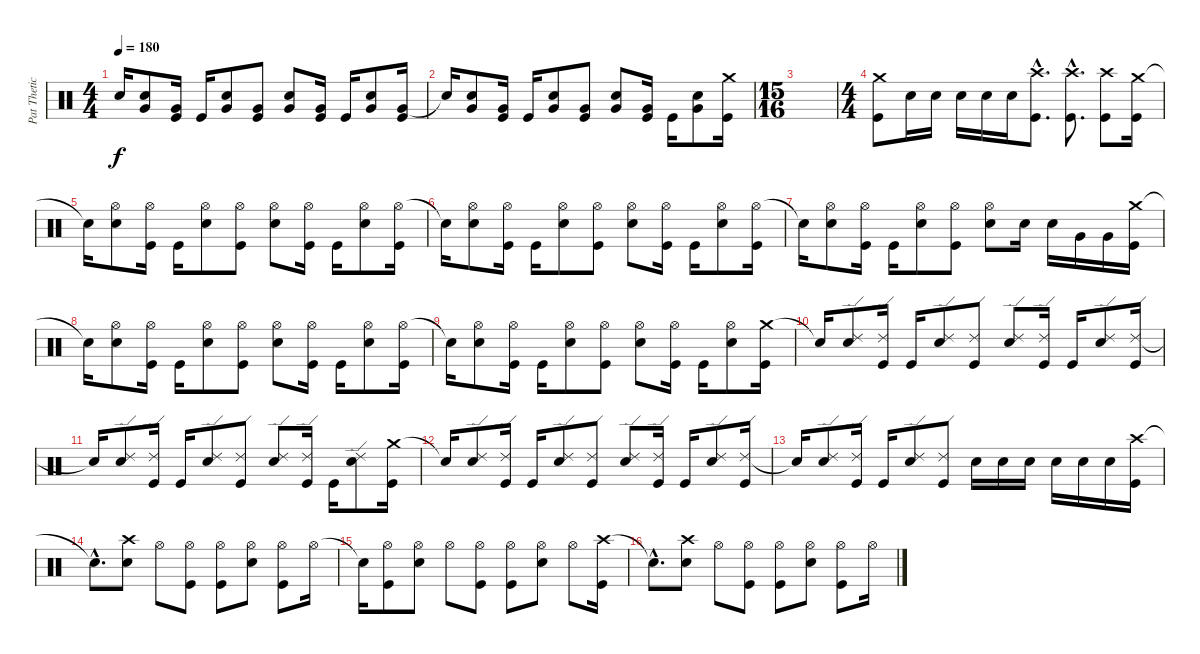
\track ("Pat Thetic" "Pat Thetic") {instrument percussion}
\staff {score}
\articulation defaults
\ts (4 4)
\tempo 180
\clef neutral
\ks c "Snare (hit)"{t}.16{dy f}
("Very Low Tom (hit)" "Electric Snare (hit)").8 ("Very Low Tom (hit)" "Kick (hit)").16 "Kick (hit)".16 ("Very Low Tom (hit)" "Electric Snare (hit)").8 ("Very Low Tom (hit)" "Kick (hit)").8 ("Very Low Tom (hit)" "Electric Snare (hit)").8 ("Very Low Tom (hit)" "Kick (hit)").16 "Kick (hit)".16 ("Very Low Tom (hit)" "Electric Snare (hit)").8 ("Very Low Tom (hit)" "Kick (hit)").16 |
"Snare (hit)"{t}.16 ("Very Low Tom (hit)" "Electric Snare (hit)").8 ("Very Low Tom (hit)" "Kick (hit)").16 "Kick (hit)".16 ("Very Low Tom (hit)" "Electric Snare (hit)").8 ("Very Low Tom (hit)" "Kick (hit)").8 ("Very Low Tom (hit)" "Electric Snare (hit)").8 ("Very Low Tom (hit)" "Kick (hit)").16 "Kick (hit)".16 ("Very Low Tom (hit)" "Electric Snare (hit)").8 ("Crash medium (hit)" "Kick (hit)").16 |
\ts (15 16)
|
\ts (4 4)
("Crash medium (hit)" "Kick (hit)").8 "Electric Snare (hit)".16 "Electric Snare (hit)".16 "Electric Snare (hit)".16 "Electric Snare (hit)".16 "Electric Snare (hit)".16 ("Crash high (hit)"{hac} "Kick (hit)"{hac}).8{d} ("Crash high (hit)"{hac} "Kick (hit)"{hac}).8{d} ("Crash high (hit)" "Kick (hit)").8 ("Crash medium (hit)" "Kick (hit)").16 |
"Snare (hit)"{t}.16 ("Hi-Hat (open)" "Electric Snare (hit)").8 ("Hi-Hat (open)" "Kick (hit)").16 "Kick (hit)".16 ("Hi-Hat (open)" "Electric Snare (hit)").8 ("Hi-Hat (open)" "Kick (hit)").8 ("Hi-Hat (open)" "Electric Snare (hit)").8 ("Hi-Hat (open)" "Kick (hit)").16 "Kick (hit)".16 ("Hi-Hat (open)" "Electric Snare (hit)").8 ("Hi-Hat (open)" "Kick (hit)").16 |
"Snare (hit)"{t}.16 ("Hi-Hat (open)" "Electric Snare (hit)").8 ("Hi-Hat (open)" "Kick (hit)").16 "Kick (hit)".16 ("Hi-Hat (open)" "Electric Snare (hit)").8 ("Hi-Hat (open)" "Kick (hit)").8 ("Hi-Hat (open)" "Electric Snare (hit)").8 ("Hi-Hat (open)" "Kick (hit)").16 "Kick (hit)".16 ("Hi-Hat (open)" "Electric Snare (hit)").8 ("Hi-Hat (open)" "Kick (hit)").16 |
"Snare (hit)"{t}.16 ("Hi-Hat (open)" "Electric Snare (hit)").8 ("Hi-Hat (open)" "Kick (hit)").16 "Kick (hit)".16 ("Hi-Hat (open)" "Electric Snare (hit)").8 ("Hi-Hat (open)" "Kick (hit)").8 ("Hi-Hat (open)" "Electric Snare (hit)").8 "Electric Snare (hit)".16 "Electric Snare (hit)".16 "Very Low Tom (hit)".16 "Very Low Tom (hit)".16 ("Crash medium (hit)" "Kick (hit)").16 |
"Snare (hit)"{t}.16 ("Hi-Hat (open)" "Electric Snare (hit)").8 ("Hi-Hat (open)" "Kick (hit)").16 "Kick (hit)".16 ("Hi-Hat (open)" "Electric Snare (hit)").8 ("Hi-Hat (open)" "Kick (hit)").8 ("Hi-Hat (open)" "Electric Snare (hit)").8 ("Hi-Hat (open)" "Kick (hit)").16 "Kick (hit)".16 ("Hi-Hat (open)" "Electric Snare (hit)").8 ("Hi-Hat (open)" "Kick (hit)").16 |
"Snare (hit)"{t}.16 ("Hi-Hat (open)" "Electric Snare (hit)").8 ("Hi-Hat (open)" "Kick (hit)").16 "Kick (hit)".16 ("Hi-Hat (open)" "Electric Snare (hit)").8 ("Hi-Hat (open)" "Kick (hit)").8 ("Hi-Hat (open)" "Electric Snare (hit)").8 ("Hi-Hat (open)" "Kick (hit)").16 "Kick (hit)".16 ("Hi-Hat (open)" "Electric Snare (hit)").8 ("Crash medium (hit)" "Kick (hit)").16 |
"Snare (hit)"{t}.16 ("Ride (edge) 2" "Electric Snare (hit)").8 ("Ride (edge) 2" "Kick (hit)").16 "Kick (hit)".16 ("Ride (edge) 2" "Electric Snare (hit)").8 ("Ride (edge) 2" "Kick (hit)").8 ("Ride (edge) 2" "Electric Snare (hit)").8 ("Ride (edge) 2" "Kick (hit)").16 "Kick (hit)".16 ("Ride (edge) 2" "Electric Snare (hit)").8 ("Ride (edge) 2" "Kick (hit)").16 |
"Snare (hit)"{t}.16 ("Ride (edge) 2" "Electric Snare (hit)").8 ("Ride (edge) 2" "Kick (hit)").16 "Kick (hit)".16 ("Ride (edge) 2" "Electric Snare (hit)").8 ("Ride (edge) 2" "Kick (hit)").8 ("Ride (edge) 2" "Electric Snare (hit)").8 ("Ride (edge) 2" "Kick (hit)").16 "Kick (hit)".16 ("Ride (edge) 2" "Electric Snare (hit)").8 ("Crash medium (hit)" "Kick (hit)").16 |
"Snare (hit)"{t}.16 ("Ride (edge) 2" "Electric Snare (hit)").8 ("Ride (edge) 2" "Kick (hit)").16 "Kick (hit)".16 ("Ride (edge) 2" "Electric Snare (hit)").8 ("Ride (edge) 2" "Kick (hit)").8 ("Ride (edge) 2" "Electric Snare (hit)").8 ("Ride (edge) 2" "Kick (hit)").16 "Kick (hit)".16 ("Ride (edge) 2" "Electric Snare (hit)").8 ("Ride (edge) 2" "Kick (hit)").16 |
"Snare (hit)"{t}.16 ("Ride (edge) 2" "Electric Snare (hit)").8 ("Ride (edge) 2" "Kick (hit)").16 "Kick (hit)".16 ("Ride (edge) 2" "Electric Snare (hit)").8 ("Ride (edge) 2" "Kick (hit)").8 "Electric Snare (hit)".16 "Electric Snare (hit)".16 "Electric Snare (hit)".16 "Electric Snare (hit)".16 "Electric Snare (hit)".16 "Electric Snare (hit)".16 ("Crash high (hit)" "Kick (hit)").16 |
"Snare (hit)"{hac t}.8{d} ("Crash high (hit)" "Electric Snare (hit)").8 "Hi-Hat (open)".8 ("Hi-Hat (open)" "Kick (hit)").8 ("Hi-Hat (open)" "Kick (hit)").8 ("Hi-Hat (open)" "Electric Snare (hit)").8 ("Hi-Hat (open)" "Kick (hit)").8 "Hi-Hat (open)".16 |
"Snare (hit)"{t}.16 ("Hi-Hat (open)" "Kick (hit)").8 ("Hi-Hat (open)" "Electric Snare (hit)").8 "Hi-Hat (open)".8 ("Hi-Hat (open)" "Kick (hit)").8 ("Hi-Hat (open)" "Kick (hit)").8 ("Hi-Hat (open)" "Electric Snare (hit)").8 "Hi-Hat (open)".8 ("Crash high (hit)" "Kick (hit)").16 |
"Snare (hit)"{hac t}.8{d} ("Crash high (hit)" "Electric Snare (hit)").8 "Hi-Hat (open)".8 ("Hi-Hat (open)" "Kick (hit)").8 ("Hi-Hat (open)" "Kick (hit)").8 ("Hi-Hat (open)" "Electric Snare (hit)").8 ("Hi-Hat (open)" "Kick (hit)").8 "Hi-Hat (open)".16
